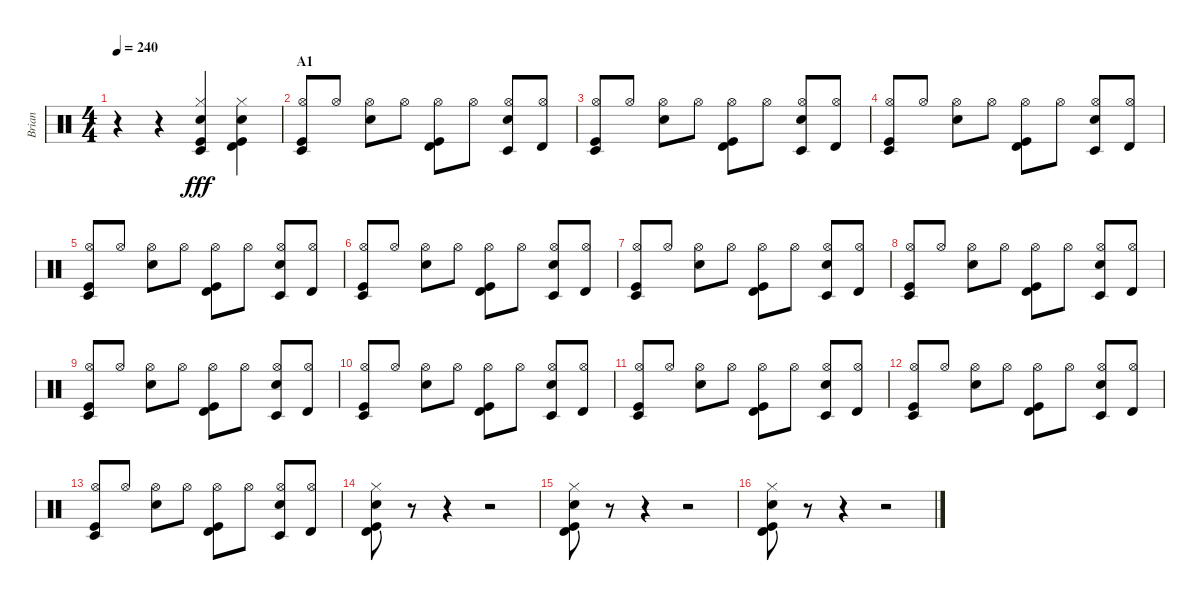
\track ("Brian" "Brian") {instrument percussion}
\staff {score}
\articulation defaults
\ts (4 4)
\tempo 240
\clef neutral
\ks c
r.4{dy fff} r.4 ("Timbale low (hit)" "Hi-Hat (closed)" "Snare (hit) 2" "Kick (hit)").4 ("Timbale high (hit)" "Hi-Hat (closed)" "Snare (hit) 2" "Kick (hit)").4 |
\section ("" "A1")
("Timbale low (hit)" "Hi-Hat (open)" "Kick (hit)").8 "Hi-Hat (open)".8 ("Hi-Hat (open)" "Snare (hit) 2").8 "Hi-Hat (open)".8 ("Timbale high (hit)" "Hi-Hat (open)" "Kick (hit)").8 "Hi-Hat (open)".8 ("Timbale low (hit)" "Hi-Hat (open)" "Snare (hit) 2").8 ("Timbale high (hit)" "Hi-Hat (open)").8 |
("Timbale low (hit)" "Hi-Hat (open)" "Kick (hit)").8 "Hi-Hat (open)".8 ("Hi-Hat (open)" "Snare (hit) 2").8 "Hi-Hat (open)".8 ("Timbale high (hit)" "Hi-Hat (open)" "Kick (hit)").8 "Hi-Hat (open)".8 ("Timbale low (hit)" "Hi-Hat (open)" "Snare (hit) 2").8 ("Timbale high (hit)" "Hi-Hat (open)").8 |
("Timbale low (hit)" "Hi-Hat (open)" "Kick (hit)").8 "Hi-Hat (open)".8 ("Hi-Hat (open)" "Snare (hit) 2").8 "Hi-Hat (open)".8 ("Timbale high (hit)" "Hi-Hat (open)" "Kick (hit)").8 "Hi-Hat (open)".8 ("Timbale low (hit)" "Hi-Hat (open)" "Snare (hit) 2").8 ("Timbale high (hit)" "Hi-Hat (open)").8 |
("Timbale low (hit)" "Hi-Hat (open)" "Kick (hit)").8 "Hi-Hat (open)".8 ("Hi-Hat (open)" "Snare (hit) 2").8 "Hi-Hat (open)".8 ("Timbale high (hit)" "Hi-Hat (open)" "Kick (hit)").8 "Hi-Hat (open)".8 ("Timbale low (hit)" "Hi-Hat (open)" "Snare (hit) 2").8 ("Timbale high (hit)" "Hi-Hat (open)").8 |
("Timbale low (hit)" "Hi-Hat (open)" "Kick (hit)").8 "Hi-Hat (open)".8 ("Hi-Hat (open)" "Snare (hit) 2").8 "Hi-Hat (open)".8 ("Timbale high (hit)" "Hi-Hat (open)" "Kick (hit)").8 "Hi-Hat (open)".8 ("Timbale low (hit)" "Hi-Hat (open)" "Snare (hit) 2").8 ("Timbale high (hit)" "Hi-Hat (open)").8 |
("Timbale low (hit)" "Hi-Hat (open)" "Kick (hit)").8 "Hi-Hat (open)".8 ("Hi-Hat (open)" "Snare (hit) 2").8 "Hi-Hat (open)".8 ("Timbale high (hit)" "Hi-Hat (open)" "Kick (hit)").8 "Hi-Hat (open)".8 ("Timbale low (hit)" "Hi-Hat (open)" "Snare (hit) 2").8 ("Timbale high (hit)" "Hi-Hat (open)").8 |
("Timbale low (hit)" "Hi-Hat (open)" "Kick (hit)").8 "Hi-Hat (open)".8 ("Hi-Hat (open)" "Snare (hit) 2").8 "Hi-Hat (open)".8 ("Timbale high (hit)" "Hi-Hat (open)" "Kick (hit)").8 "Hi-Hat (open)".8 ("Timbale low (hit)" "Hi-Hat (open)" "Snare (hit) 2").8 ("Timbale high (hit)" "Hi-Hat (open)").8 |
("Timbale low (hit)" "Hi-Hat (open)" "Kick (hit)").8 "Hi-Hat (open)".8 ("Hi-Hat (open)" "Snare (hit) 2").8 "Hi-Hat (open)".8 ("Timbale high (hit)" "Hi-Hat (open)" "Kick (hit)").8 "Hi-Hat (open)".8 ("Timbale low (hit)" "Hi-Hat (open)" "Snare (hit) 2").8 ("Timbale high (hit)" "Hi-Hat (open)").8 |
("Timbale low (hit)" "Hi-Hat (open)" "Kick (hit)").8 "Hi-Hat (open)".8 ("Hi-Hat (open)" "Snare (hit) 2").8 "Hi-Hat (open)".8 ("Timbale high (hit)" "Hi-Hat (open)" "Kick (hit)").8 "Hi-Hat (open)".8 ("Timbale low (hit)" "Hi-Hat (open)" "Snare (hit) 2").8 ("Timbale high (hit)" "Hi-Hat (open)").8 |
("Timbale low (hit)" "Hi-Hat (open)" "Kick (hit)").8 "Hi-Hat (open)".8 ("Hi-Hat (open)" "Snare (hit) 2").8 "Hi-Hat (open)".8 ("Timbale high (hit)" "Hi-Hat (open)" "Kick (hit)").8 "Hi-Hat (open)".8 ("Timbale low (hit)" "Hi-Hat (open)" "Snare (hit) 2").8 ("Timbale high (hit)" "Hi-Hat (open)").8 |
("Timbale low (hit)" "Hi-Hat (open)" "Kick (hit)").8 "Hi-Hat (open)".8 ("Hi-Hat (open)" "Snare (hit) 2").8 "Hi-Hat (open)".8 ("Timbale high (hit)" "Hi-Hat (open)" "Kick (hit)").8 "Hi-Hat (open)".8 ("Timbale low (hit)" "Hi-Hat (open)" "Snare (hit) 2").8 ("Timbale high (hit)" "Hi-Hat (open)").8 |
("Timbale low (hit)" "Hi-Hat (open)" "Kick (hit)").8 "Hi-Hat (open)".8 ("Hi-Hat (open)" "Snare (hit) 2").8 "Hi-Hat (open)".8 ("Timbale high (hit)" "Hi-Hat (open)" "Kick (hit)").8 "Hi-Hat (open)".8 ("Timbale low (hit)" "Hi-Hat (open)" "Snare (hit) 2").8 ("Timbale high (hit)" "Hi-Hat (open)").8 |
("Timbale high (hit)" "Hi-Hat (closed)" "Snare (hit) 2" "Kick (hit)").8 r.8 r.4 r.2 |
("Timbale high (hit)" "Hi-Hat (closed)" "Snare (hit) 2" "Kick (hit)").8 r.8 r.4 r.2 |
("Timbale high (hit)" "Hi-Hat (closed)" "Snare (hit) 2" "Kick (hit)").8 r.8 r.4 r.2
